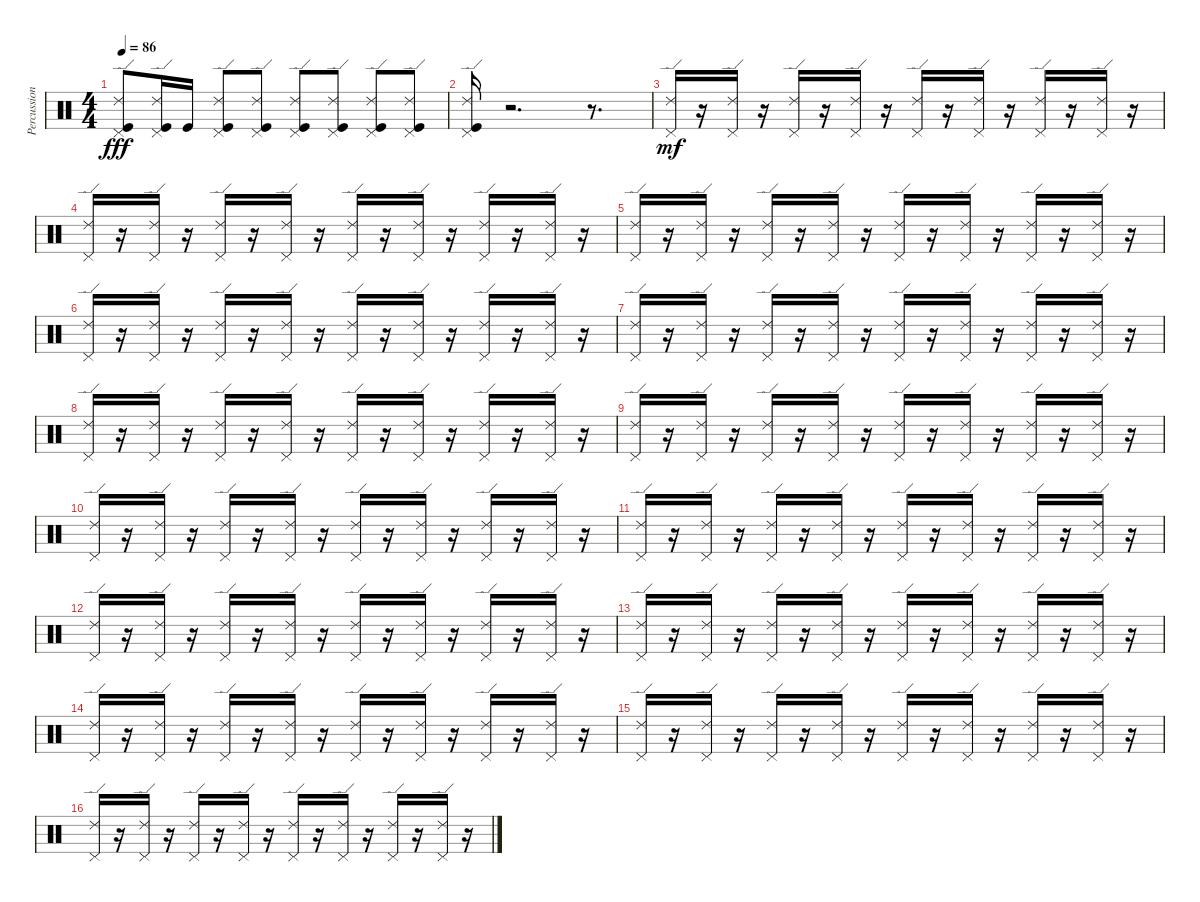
\track ("Percussion" "Percussion") {instrument percussion}
\staff {score}
\articulation defaults
\ts (4 4)
\tempo 86
\clef neutral
\ks c
("Pedal Hi-Hat (hit)" "Ride (edge) 2" "Kick (hit)").8{dy fff} ("Pedal Hi-Hat (hit)" "Ride (edge) 2" "Kick (hit)").16 "Kick (hit)".16 ("Pedal Hi-Hat (hit)" "Ride (edge) 2" "Kick (hit)").8 ("Pedal Hi-Hat (hit)" "Ride (edge) 2" "Kick (hit)").8 ("Pedal Hi-Hat (hit)" "Ride (edge) 2" "Kick (hit)").8 ("Pedal Hi-Hat (hit)" "Ride (edge) 2" "Kick (hit)").8 ("Pedal Hi-Hat (hit)" "Ride (edge) 2" "Kick (hit)").8 ("Pedal Hi-Hat (hit)" "Ride (edge) 2" "Kick (hit)").8 |
("Pedal Hi-Hat (hit)" "Ride (edge) 2" "Kick (hit)").16 r.2{d} r.8{d} |
("Pedal Hi-Hat (hit)" "Ride (edge) 2").16{dy mf} r.16 ("Pedal Hi-Hat (hit)" "Ride (edge) 2").16 r.16 ("Pedal Hi-Hat (hit)" "Ride (edge) 2").16 r.16 ("Pedal Hi-Hat (hit)" "Ride (edge) 2").16 r.16 ("Pedal Hi-Hat (hit)" "Ride (edge) 2").16 r.16 ("Pedal Hi-Hat (hit)" "Ride (edge) 2").16 r.16 ("Pedal Hi-Hat (hit)" "Ride (edge) 2").16 r.16 ("Pedal Hi-Hat (hit)" "Ride (edge) 2").16 r.16 |
("Pedal Hi-Hat (hit)" "Ride (edge) 2").16 r.16 ("Pedal Hi-Hat (hit)" "Ride (edge) 2").16 r.16 ("Pedal Hi-Hat (hit)" "Ride (edge) 2").16 r.16 ("Pedal Hi-Hat (hit)" "Ride (edge) 2").16 r.16 ("Pedal Hi-Hat (hit)" "Ride (edge) 2").16 r.16 ("Pedal Hi-Hat (hit)" "Ride (edge) 2").16 r.16 ("Pedal Hi-Hat (hit)" "Ride (edge) 2").16 r.16 ("Pedal Hi-Hat (hit)" "Ride (edge) 2").16 r.16 |
("Pedal Hi-Hat (hit)" "Ride (edge) 2").16 r.16 ("Pedal Hi-Hat (hit)" "Ride (edge) 2").16 r.16 ("Pedal Hi-Hat (hit)" "Ride (edge) 2").16 r.16 ("Pedal Hi-Hat (hit)" "Ride (edge) 2").16 r.16 ("Pedal Hi-Hat (hit)" "Ride (edge) 2").16 r.16 ("Pedal Hi-Hat (hit)" "Ride (edge) 2").16 r.16 ("Pedal Hi-Hat (hit)" "Ride (edge) 2").16 r.16 ("Pedal Hi-Hat (hit)" "Ride (edge) 2").16 r.16 |
("Pedal Hi-Hat (hit)" "Ride (edge) 2").16 r.16 ("Pedal Hi-Hat (hit)" "Ride (edge) 2").16 r.16 ("Pedal Hi-Hat (hit)" "Ride (edge) 2").16 r.16 ("Pedal Hi-Hat (hit)" "Ride (edge) 2").16 r.16 ("Pedal Hi-Hat (hit)" "Ride (edge) 2").16 r.16 ("Pedal Hi-Hat (hit)" "Ride (edge) 2").16 r.16 ("Pedal Hi-Hat (hit)" "Ride (edge) 2").16 r.16 ("Pedal Hi-Hat (hit)" "Ride (edge) 2").16 r.16 |
("Pedal Hi-Hat (hit)" "Ride (edge) 2").16 r.16 ("Pedal Hi-Hat (hit)" "Ride (edge) 2").16 r.16 ("Pedal Hi-Hat (hit)" "Ride (edge) 2").16 r.16 ("Pedal Hi-Hat (hit)" "Ride (edge) 2").16 r.16 ("Pedal Hi-Hat (hit)" "Ride (edge) 2").16 r.16 ("Pedal Hi-Hat (hit)" "Ride (edge) 2").16 r.16 ("Pedal Hi-Hat (hit)" "Ride (edge) 2").16 r.16 ("Pedal Hi-Hat (hit)" "Ride (edge) 2").16 r.16 |
("Pedal Hi-Hat (hit)" "Ride (edge) 2").16 r.16 ("Pedal Hi-Hat (hit)" "Ride (edge) 2").16 r.16 ("Pedal Hi-Hat (hit)" "Ride (edge) 2").16 r.16 ("Pedal Hi-Hat (hit)" "Ride (edge) 2").16 r.16 ("Pedal Hi-Hat (hit)" "Ride (edge) 2").16 r.16 ("Pedal Hi-Hat (hit)" "Ride (edge) 2").16 r.16 ("Pedal Hi-Hat (hit)" "Ride (edge) 2").16 r.16 ("Pedal Hi-Hat (hit)" "Ride (edge) 2").16 r.16 |
("Pedal Hi-Hat (hit)" "Ride (edge) 2").16 r.16 ("Pedal Hi-Hat (hit)" "Ride (edge) 2").16 r.16 ("Pedal Hi-Hat (hit)" "Ride (edge) 2").16 r.16 ("Pedal Hi-Hat (hit)" "Ride (edge) 2").16 r.16 ("Pedal Hi-Hat (hit)" "Ride (edge) 2").16 r.16 ("Pedal Hi-Hat (hit)" "Ride (edge) 2").16 r.16 ("Pedal Hi-Hat (hit)" "Ride (edge) 2").16 r.16 ("Pedal Hi-Hat (hit)" "Ride (edge) 2").16 r.16 |
("Pedal Hi-Hat (hit)" "Ride (edge) 2").16 r.16 ("Pedal Hi-Hat (hit)" "Ride (edge) 2").16 r.16 ("Pedal Hi-Hat (hit)" "Ride (edge) 2").16 r.16 ("Pedal Hi-Hat (hit)" "Ride (edge) 2").16 r.16 ("Pedal Hi-Hat (hit)" "Ride (edge) 2").16 r.16 ("Pedal Hi-Hat (hit)" "Ride (edge) 2").16 r.16 ("Pedal Hi-Hat (hit)" "Ride (edge) 2").16 r.16 ("Pedal Hi-Hat (hit)" "Ride (edge) 2").16 r.16 |
("Pedal Hi-Hat (hit)" "Ride (edge) 2").16 r.16 ("Pedal Hi-Hat (hit)" "Ride (edge) 2").16 r.16 ("Pedal Hi-Hat (hit)" "Ride (edge) 2").16 r.16 ("Pedal Hi-Hat (hit)" "Ride (edge) 2").16 r.16 ("Pedal Hi-Hat (hit)" "Ride (edge) 2").16 r.16 ("Pedal Hi-Hat (hit)" "Ride (edge) 2").16 r.16 ("Pedal Hi-Hat (hit)" "Ride (edge) 2").16 r.16 ("Pedal Hi-Hat (hit)" "Ride (edge) 2").16 r.16 |
("Pedal Hi-Hat (hit)" "Ride (edge) 2").16 r.16 ("Pedal Hi-Hat (hit)" "Ride (edge) 2").16 r.16 ("Pedal Hi-Hat (hit)" "Ride (edge) 2").16 r.16 ("Pedal Hi-Hat (hit)" "Ride (edge) 2").16 r.16 ("Pedal Hi-Hat (hit)" "Ride (edge) 2").16 r.16 ("Pedal Hi-Hat (hit)" "Ride (edge) 2").16 r.16 ("Pedal Hi-Hat (hit)" "Ride (edge) 2").16 r.16 ("Pedal Hi-Hat (hit)" "Ride (edge) 2").16 r.16 |
("Pedal Hi-Hat (hit)" "Ride (edge) 2").16 r.16 ("Pedal Hi-Hat (hit)" "Ride (edge) 2").16 r.16 ("Pedal Hi-Hat (hit)" "Ride (edge) 2").16 r.16 ("Pedal Hi-Hat (hit)" "Ride (edge) 2").16 r.16 ("Pedal Hi-Hat (hit)" "Ride (edge) 2").16 r.16 ("Pedal Hi-Hat (hit)" "Ride (edge) 2").16 r.16 ("Pedal Hi-Hat (hit)" "Ride (edge) 2").16 r.16 ("Pedal Hi-Hat (hit)" "Ride (edge) 2").16 r.16 |
("Pedal Hi-Hat (hit)" "Ride (edge) 2").16 r.16 ("Pedal Hi-Hat (hit)" "Ride (edge) 2").16 r.16 ("Pedal Hi-Hat (hit)" "Ride (edge) 2").16 r.16 ("Pedal Hi-Hat (hit)" "Ride (edge) 2").16 r.16 ("Pedal Hi-Hat (hit)" "Ride (edge) 2").16 r.16 ("Pedal Hi-Hat (hit)" "Ride (edge) 2").16 r.16 ("Pedal Hi-Hat (hit)" "Ride (edge) 2").16 r.16 ("Pedal Hi-Hat (hit)" "Ride (edge) 2").16 r.16 |
("Pedal Hi-Hat (hit)" "Ride (edge) 2").16 r.16 ("Pedal Hi-Hat (hit)" "Ride (edge) 2").16 r.16 ("Pedal Hi-Hat (hit)" "Ride (edge) 2").16 r.16 ("Pedal Hi-Hat (hit)" "Ride (edge) 2").16 r.16 ("Pedal Hi-Hat (hit)" "Ride (edge) 2").16 r.16 ("Pedal Hi-Hat (hit)" "Ride (edge) 2").16 r.16 ("Pedal Hi-Hat (hit)" "Ride (edge) 2").16 r.16 ("Pedal Hi-Hat (hit)" "Ride (edge) 2").16 r.16 |
("Pedal Hi-Hat (hit)" "Ride (edge) 2").16 r.16 ("Pedal Hi-Hat (hit)" "Ride (edge) 2").16 r.16 ("Pedal Hi-Hat (hit)" "Ride (edge) 2").16 r.16 ("Pedal Hi-Hat (hit)" "Ride (edge) 2").16 r.16 ("Pedal Hi-Hat (hit)" "Ride (edge) 2").16 r.16 ("Pedal Hi-Hat (hit)" "Ride (edge) 2").16 r.16 ("Pedal Hi-Hat (hit)" "Ride (edge) 2").16 r.16 ("Pedal Hi-Hat (hit)" "Ride (edge) 2").16 r.16
